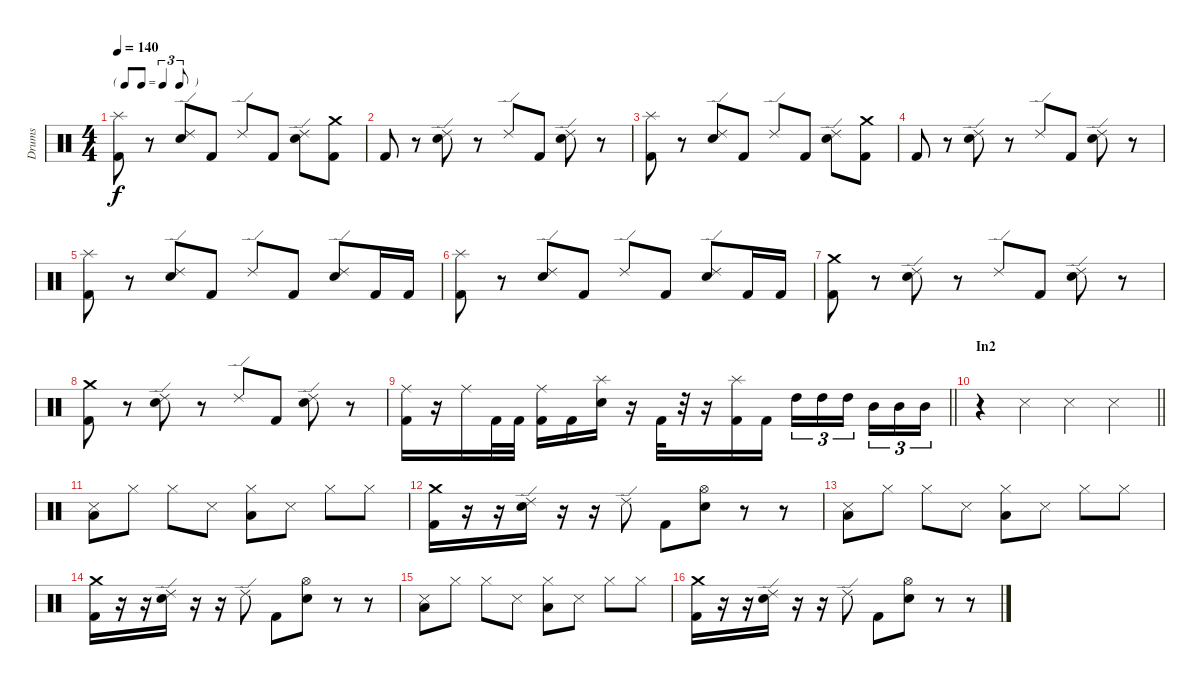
\track ("Drums" "Drums") {instrument percussion}
\staff {score}
\articulation defaults
\ts (4 4)
\tf triplet8th
\tempo 140
\clef neutral
\ks c
("Splash (hit)" "Kick (hit) 2").8{dy f} r.8 ("Ride (edge) 2" "Electric Snare (hit)").8 "Kick (hit) 2".8 "Ride (edge) 2".8 "Kick (hit) 2".8 ("Ride (edge) 2" "Electric Snare (hit)").8 ("Crash medium (hit)" "Kick (hit) 2").8 |
"Kick (hit) 2".8 r.8 ("Ride (edge) 2" "Electric Snare (hit)").8 r.8 "Ride (edge) 2".8 "Kick (hit) 2".8 ("Ride (edge) 2" "Electric Snare (hit)").8 r.8 |
("Splash (hit)" "Kick (hit) 2").8 r.8 ("Ride (edge) 2" "Electric Snare (hit)").8 "Kick (hit) 2".8 "Ride (edge) 2".8 "Kick (hit) 2".8 ("Ride (edge) 2" "Electric Snare (hit)").8 ("Crash medium (hit)" "Kick (hit) 2").8 |
"Kick (hit) 2".8 r.8 ("Ride (edge) 2" "Electric Snare (hit)").8 r.8 "Ride (edge) 2".8 "Kick (hit) 2".8 ("Ride (edge) 2" "Electric Snare (hit)").8 r.8 |
("Splash (hit)" "Kick (hit) 2").8 r.8 ("Ride (edge) 2" "Electric Snare (hit)").8 "Kick (hit) 2".8 "Ride (edge) 2".8 "Kick (hit) 2".8 ("Ride (edge) 2" "Electric Snare (hit)").8 "Kick (hit) 2".16 "Kick (hit) 2".16 |
("Splash (hit)" "Kick (hit) 2").8 r.8 ("Ride (edge) 2" "Electric Snare (hit)").8 "Kick (hit) 2".8 "Ride (edge) 2".8 "Kick (hit) 2".8 ("Ride (edge) 2" "Electric Snare (hit)").8 "Kick (hit) 2".16 "Kick (hit) 2".16 |
("Crash medium (hit)" "Kick (hit) 2").8 r.8 ("Ride (edge) 2" "Electric Snare (hit)").8 r.8 "Ride (edge) 2".8 "Kick (hit) 2".8 ("Ride (edge) 2" "Electric Snare (hit)").8 r.8 |
("Crash medium (hit)" "Kick (hit) 2").8 r.8 ("Ride (edge) 2" "Electric Snare (hit)").8 r.8 "Ride (edge) 2".8 "Kick (hit) 2".8 ("Ride (edge) 2" "Electric Snare (hit)").8 r.8 |
\barLineRight lightlight
("Ride (middle)" "Kick (hit) 2").16 r.16 "Ride (middle)".16 "Kick (hit) 2".32 "Kick (hit) 2".32 ("Ride (middle)" "Kick (hit) 2").16 "Kick (hit) 2".16 ("Splash (hit)" "Electric Snare (hit)").16 r.16 "Kick (hit) 2".32 r.32 r.16 ("Splash (hit)" "Kick (hit) 2").16 "Kick (hit) 2".16 "High Tom (hit)".16{tu (3 2)} "High Tom (hit)".16{tu (3 2)} "High Tom (hit)".16{tu (3 2) beam splitsecondary} "Mid Tom (hit)".16{tu (3 2)} "Mid Tom (hit)".16{tu (3 2)} "Mid Tom (hit)".16{tu (3 2)} |
\section ("" "In2")
\barLineRight lightlight
r.4 "Snare (side stick) 3".4 "Snare (side stick) 3".4 "Snare (side stick) 3".4 |
("Low Tom (hit)" "Snare (side stick) 3").8 "Hi-Hat (closed)".8 "Hi-Hat (closed)".8 "Snare (side stick) 3".8 ("Low Tom (hit)" "Hi-Hat (closed)").8 "Snare (side stick) 3".8 "Hi-Hat (closed)".8 "Hi-Hat (closed)".8 |
("Crash medium (hit)" "Kick (hit) 2").16 r.16 r.16 ("Ride (edge) 2" "Electric Snare (hit)").16 r.16 r.16 "Ride (edge) 2".8 "Kick (hit) 2".8 ("Hi-Hat (open)" "Electric Snare (hit)").8 r.8 r.8 |
("Low Tom (hit)" "Snare (side stick) 3").8 "Hi-Hat (closed)".8 "Hi-Hat (closed)".8 "Snare (side stick) 3".8 ("Low Tom (hit)" "Hi-Hat (closed)").8 "Snare (side stick) 3".8 "Hi-Hat (closed)".8 "Hi-Hat (closed)".8 |
("Crash medium (hit)" "Kick (hit) 2").16 r.16 r.16 ("Ride (edge) 2" "Electric Snare (hit)").16 r.16 r.16 "Ride (edge) 2".8 "Kick (hit) 2".8 ("Hi-Hat (open)" "Electric Snare (hit)").8 r.8 r.8 |
("Low Tom (hit)" "Snare (side stick) 3").8 "Hi-Hat (closed)".8 "Hi-Hat (closed)".8 "Snare (side stick) 3".8 ("Low Tom (hit)" "Hi-Hat (closed)").8 "Snare (side stick) 3".8 "Hi-Hat (closed)".8 "Hi-Hat (closed)".8 |
("Crash medium (hit)" "Kick (hit) 2").16 r.16 r.16 ("Ride (edge) 2" "Electric Snare (hit)").16 r.16 r.16 "Ride (edge) 2".8 "Kick (hit) 2".8 ("Hi-Hat (open)" "Electric Snare (hit)").8 r.8 r.8
